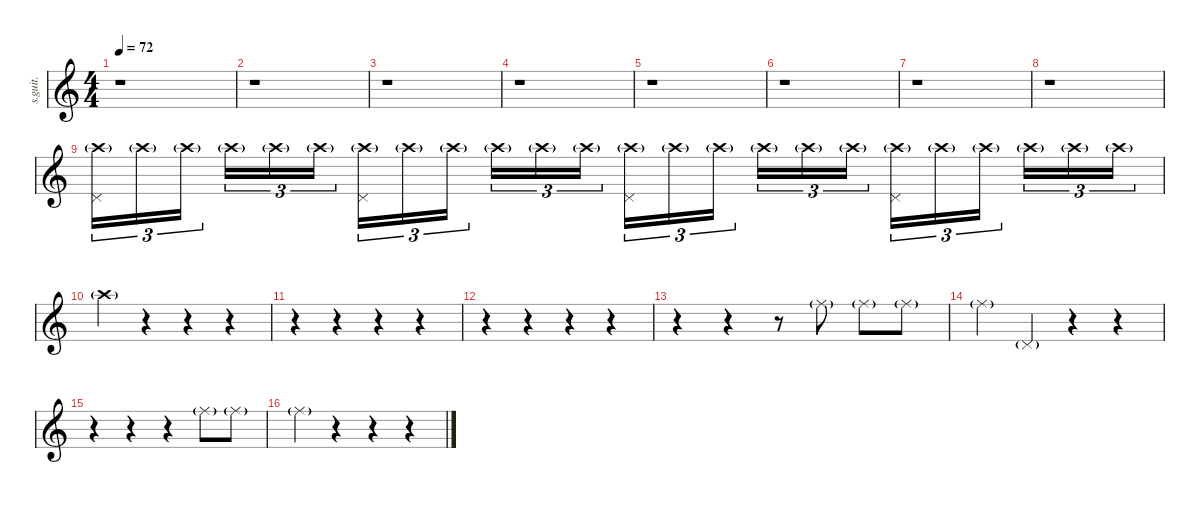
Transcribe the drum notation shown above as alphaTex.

\defaultSystemsLayout 4
\hideDynamics
\bracketExtendMode nobrackets
\track ("Ian Thomas" "s.guit.") {instrument percussion}
\staff {score}
\articulation defaults
\ts (4 4)
\beaming (8 2 2 2 2)
\tempo 72
\clef g2
\ks c
r.1{dy f} |
r.1 |
r.1 |
r.1 |
r.1 |
r.1 |
r.1 |
r.1 |
("Crash high (hit)"{g} "Pedal Hi-Hat (hit)").16{tu (3 2) lyrics (0 "") lyrics (1 "") lyrics (2 "") lyrics (3 "") lyrics (4 "")} "Crash high (hit)"{g}.16{tu (3 2) lyrics (0 "") lyrics (1 "") lyrics (2 "") lyrics (3 "") lyrics (4 "")} "Crash high (hit)"{g}.16{tu (3 2) lyrics (0 "") lyrics (1 "") lyrics (2 "") lyrics (3 "") lyrics (4 "")} "Crash high (hit)"{g}.16{tu (3 2) lyrics (0 "") lyrics (1 "") lyrics (2 "") lyrics (3 "") lyrics (4 "")} "Crash high (hit)"{g}.16{tu (3 2) lyrics (0 "") lyrics (1 "") lyrics (2 "") lyrics (3 "") lyrics (4 "")} "Crash high (hit)"{g}.16{tu (3 2) lyrics (0 "") lyrics (1 "") lyrics (2 "") lyrics (3 "") lyrics (4 "")} ("Crash high (hit)"{g} "Pedal Hi-Hat (hit)").16{tu (3 2) lyrics (0 "") lyrics (1 "") lyrics (2 "") lyrics (3 "") lyrics (4 "")} "Crash high (hit)"{g}.16{tu (3 2) lyrics (0 "") lyrics (1 "") lyrics (2 "") lyrics (3 "") lyrics (4 "")} "Crash high (hit)"{g}.16{tu (3 2) lyrics (0 "") lyrics (1 "") lyrics (2 "") lyrics (3 "") lyrics (4 "")} "Crash high (hit)"{g}.16{tu (3 2) lyrics (0 "") lyrics (1 "") lyrics (2 "") lyrics (3 "") lyrics (4 "")} "Crash high (hit)"{g}.16{tu (3 2) lyrics (0 "") lyrics (1 "") lyrics (2 "") lyrics (3 "") lyrics (4 "")} "Crash high (hit)"{g}.16{tu (3 2) lyrics (0 "") lyrics (1 "") lyrics (2 "") lyrics (3 "") lyrics (4 "")} ("Crash high (hit)"{g} "Pedal Hi-Hat (hit)").16{tu (3 2) lyrics (0 "") lyrics (1 "") lyrics (2 "") lyrics (3 "") lyrics (4 "")} "Crash high (hit)"{g}.16{tu (3 2) lyrics (0 "") lyrics (1 "") lyrics (2 "") lyrics (3 "") lyrics (4 "")} "Crash high (hit)"{g}.16{tu (3 2) lyrics (0 "") lyrics (1 "") lyrics (2 "") lyrics (3 "") lyrics (4 "")} "Crash high (hit)"{g}.16{tu (3 2) lyrics (0 "") lyrics (1 "") lyrics (2 "") lyrics (3 "") lyrics (4 "")} "Crash high (hit)"{g}.16{tu (3 2) lyrics (0 "") lyrics (1 "") lyrics (2 "") lyrics (3 "") lyrics (4 "")} "Crash high (hit)"{g}.16{tu (3 2) lyrics (0 "") lyrics (1 "") lyrics (2 "") lyrics (3 "") lyrics (4 "")} ("Crash high (hit)"{g} "Pedal Hi-Hat (hit)").16{tu (3 2) lyrics (0 "") lyrics (1 "") lyrics (2 "") lyrics (3 "") lyrics (4 "")} "Crash high (hit)"{g}.16{tu (3 2) lyrics (0 "") lyrics (1 "") lyrics (2 "") lyrics (3 "") lyrics (4 "")} "Crash high (hit)"{g}.16{tu (3 2) lyrics (0 "") lyrics (1 "") lyrics (2 "") lyrics (3 "") lyrics (4 "")} "Crash high (hit)"{g}.16{tu (3 2) lyrics (0 "") lyrics (1 "") lyrics (2 "") lyrics (3 "") lyrics (4 "")} "Crash high (hit)"{g}.16{tu (3 2) lyrics (0 "") lyrics (1 "") lyrics (2 "") lyrics (3 "") lyrics (4 "")} "Crash high (hit)"{g}.16{tu (3 2) lyrics (0 "") lyrics (1 "") lyrics (2 "") lyrics (3 "") lyrics (4 "")} |
"Crash high (hit)"{g}.4{lyrics (0 "") lyrics (1 "") lyrics (2 "") lyrics (3 "") lyrics (4 "")} r.4 r.4 r.4 |
r.4 r.4 r.4 r.4 |
r.4 r.4 r.4 r.4 |
r.4 r.4 r.8 "Ride (middle)"{g}.8{lyrics (0 "") lyrics (1 "") lyrics (2 "") lyrics (3 "") lyrics (4 "")} "Ride (middle)"{g}.8{lyrics (0 "") lyrics (1 "") lyrics (2 "") lyrics (3 "") lyrics (4 "")} "Ride (middle)"{g}.8{lyrics (0 "") lyrics (1 "") lyrics (2 "") lyrics (3 "") lyrics (4 "")} |
"Ride (middle)"{g}.4{lyrics (0 "") lyrics (1 "") lyrics (2 "") lyrics (3 "") lyrics (4 "")} "Pedal Hi-Hat (hit)"{g}.4{lyrics (0 "") lyrics (1 "") lyrics (2 "") lyrics (3 "") lyrics (4 "")} r.4 r.4 |
r.4 r.4 r.4 "Ride (middle)"{g}.8{lyrics (0 "") lyrics (1 "") lyrics (2 "") lyrics (3 "") lyrics (4 "")} "Ride (middle)"{g}.8{lyrics (0 "") lyrics (1 "") lyrics (2 "") lyrics (3 "") lyrics (4 "")} |
"Ride (middle)"{g}.4{lyrics (0 "") lyrics (1 "") lyrics (2 "") lyrics (3 "") lyrics (4 "")} r.4 r.4 r.4
